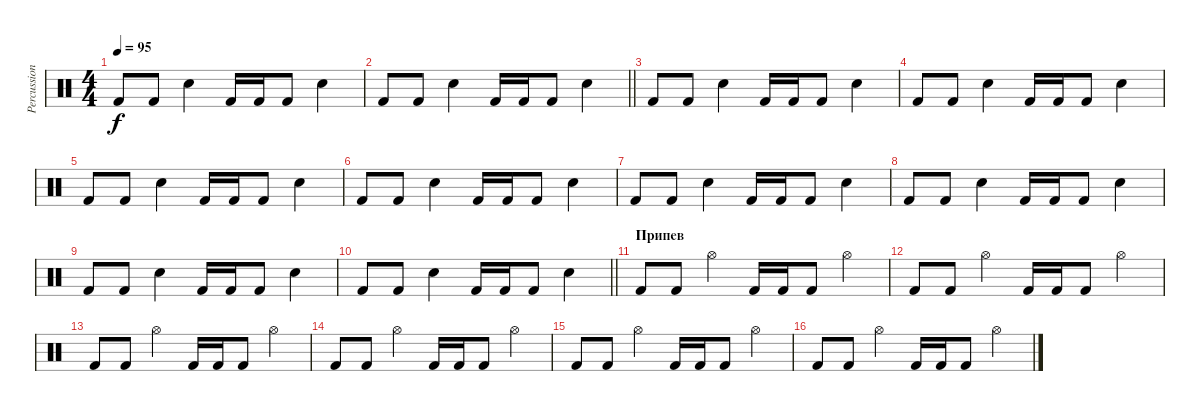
\track ("Percussion" "Percussion") {instrument percussion}
\staff {score}
\articulation defaults
\ts (4 4)
\tempo 95
\clef neutral
\ks c "Kick (hit) 2".8{dy f} "Kick (hit) 2".8 "Electric Snare (hit)".4 "Kick (hit) 2".16 "Kick (hit) 2".16 "Kick (hit) 2".8 "Electric Snare (hit)".4
|
\barLineRight lightlight "Kick (hit) 2".8 "Kick (hit) 2".8 "Electric Snare (hit)".4 "Kick (hit) 2".16 "Kick (hit) 2".16 "Kick (hit) 2".8 "Electric Snare (hit)".4
|
"Kick (hit) 2".8 "Kick (hit) 2".8 "Electric Snare (hit)".4 "Kick (hit) 2".16 "Kick (hit) 2".16 "Kick (hit) 2".8 "Electric Snare (hit)".4 |
"Kick (hit) 2".8 "Kick (hit) 2".8 "Electric Snare (hit)".4 "Kick (hit) 2".16 "Kick (hit) 2".16 "Kick (hit) 2".8 "Electric Snare (hit)".4 |
"Kick (hit) 2".8 "Kick (hit) 2".8 "Electric Snare (hit)".4 "Kick (hit) 2".16 "Kick (hit) 2".16 "Kick (hit) 2".8 "Electric Snare (hit)".4 |
"Kick (hit) 2".8 "Kick (hit) 2".8 "Electric Snare (hit)".4 "Kick (hit) 2".16 "Kick (hit) 2".16 "Kick (hit) 2".8 "Electric Snare (hit)".4 |
"Kick (hit) 2".8 "Kick (hit) 2".8 "Electric Snare (hit)".4 "Kick (hit) 2".16 "Kick (hit) 2".16 "Kick (hit) 2".8 "Electric Snare (hit)".4 |
"Kick (hit) 2".8 "Kick (hit) 2".8 "Electric Snare (hit)".4 "Kick (hit) 2".16 "Kick (hit) 2".16 "Kick (hit) 2".8 "Electric Snare (hit)".4 |
"Kick (hit) 2".8 "Kick (hit) 2".8 "Electric Snare (hit)".4 "Kick (hit) 2".16 "Kick (hit) 2".16 "Kick (hit) 2".8 "Electric Snare (hit)".4 |
\barLineRight lightlight "Kick (hit) 2".8 "Kick (hit) 2".8 "Electric Snare (hit)".4 "Kick (hit) 2".16 "Kick (hit) 2".16 "Kick (hit) 2".8 "Electric Snare (hit)".4
|
\section ("" "Припев")
"Kick (hit) 2".8 "Kick (hit) 2".8 "Hi-Hat (open)".4 "Kick (hit) 2".16 "Kick (hit) 2".16 "Kick (hit) 2".8 "Hi-Hat (open)".4 |
"Kick (hit) 2".8 "Kick (hit) 2".8 "Hi-Hat (open)".4 "Kick (hit) 2".16 "Kick (hit) 2".16 "Kick (hit) 2".8 "Hi-Hat (open)".4 |
"Kick (hit) 2".8 "Kick (hit) 2".8 "Hi-Hat (open)".4 "Kick (hit) 2".16 "Kick (hit) 2".16 "Kick (hit) 2".8 "Hi-Hat (open)".4 |
"Kick (hit) 2".8 "Kick (hit) 2".8 "Hi-Hat (open)".4 "Kick (hit) 2".16 "Kick (hit) 2".16 "Kick (hit) 2".8 "Hi-Hat (open)".4 |
"Kick (hit) 2".8 "Kick (hit) 2".8 "Hi-Hat (open)".4 "Kick (hit) 2".16 "Kick (hit) 2".16 "Kick (hit) 2".8 "Hi-Hat (open)".4 |
"Kick (hit) 2".8 "Kick (hit) 2".8 "Hi-Hat (open)".4 "Kick (hit) 2".16 "Kick (hit) 2".16 "Kick (hit) 2".8 "Hi-Hat (open)".4
